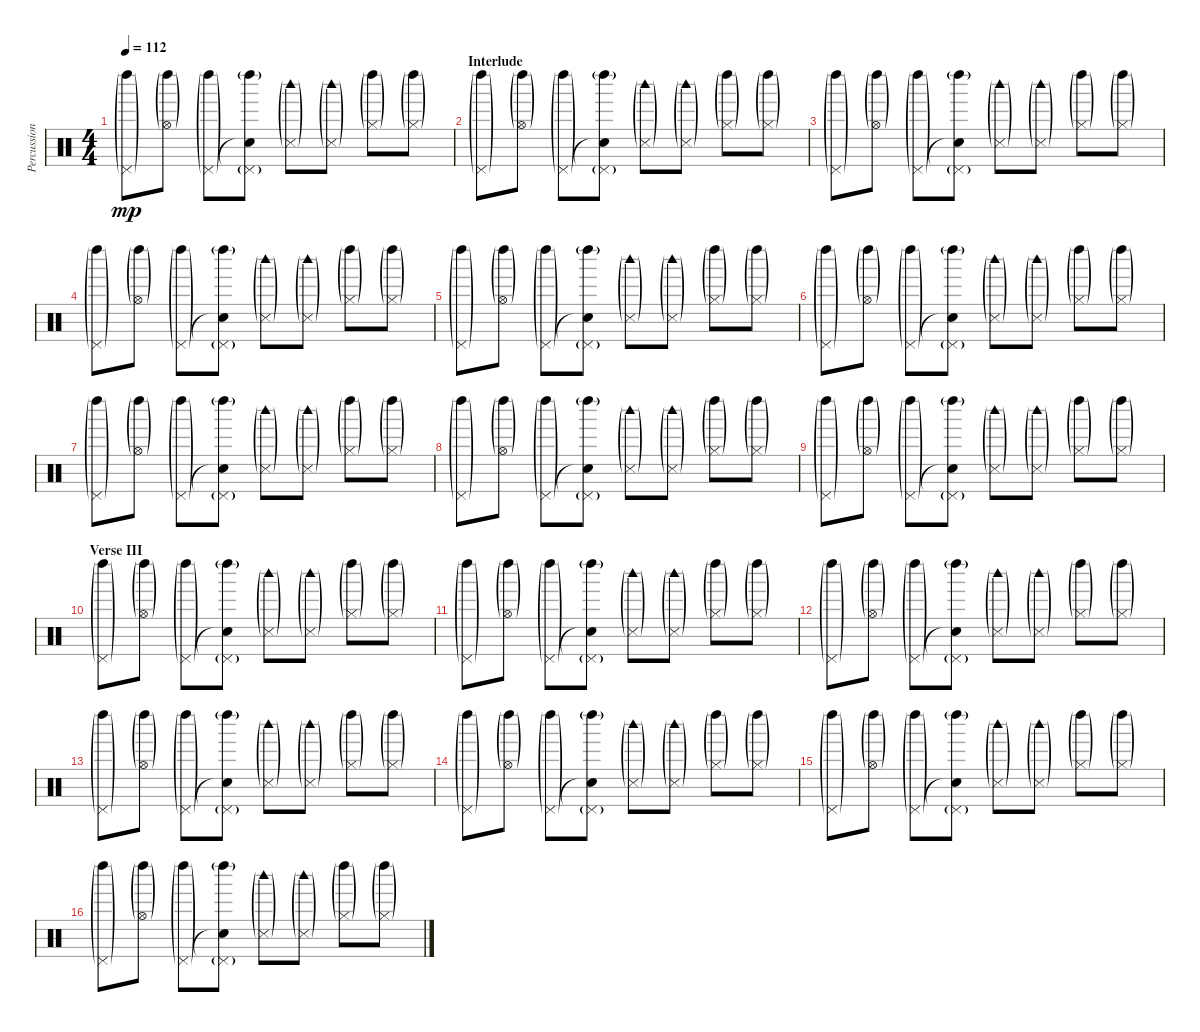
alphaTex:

\track ("Percussion" "Percussion") {instrument percussion}
\staff {score}
\articulation defaults
\ts (4 4)
\tempo 112
\clef neutral
\ks c
("Left Maraca (hit)"{g} "Pedal Hi-Hat (hit)"{g}).8{dy mp} ("Left Maraca (hit)"{g} "Hi-Hat (open)"{g}).8 ("Left Maraca (hit)"{g} "Pedal Hi-Hat (hit)"{g}).8 ("Left Maraca (hit)"{g} "Snare (hit)"{t} "Pedal Hi-Hat (hit)"{g}).8 ("Snare (side stick) 3"{g} "Woodblock high (hit)"{g}).8 ("Snare (side stick) 3"{g} "Woodblock high (hit)"{g}).8 ("Left Maraca (hit)"{g} "Hi-Hat (closed)"{g}).8 ("Left Maraca (hit)"{g} "Hi-Hat (closed)"{g}).8 |
\section ("" "Interlude")
("Left Maraca (hit)"{g} "Pedal Hi-Hat (hit)"{g}).8 ("Left Maraca (hit)"{g} "Hi-Hat (open)"{g}).8 ("Left Maraca (hit)"{g} "Pedal Hi-Hat (hit)"{g}).8 ("Left Maraca (hit)"{g} "Snare (hit)"{t} "Pedal Hi-Hat (hit)"{g}).8 ("Snare (side stick) 3"{g} "Woodblock high (hit)"{g}).8 ("Snare (side stick) 3"{g} "Woodblock high (hit)"{g}).8 ("Left Maraca (hit)"{g} "Hi-Hat (closed)"{g}).8 ("Left Maraca (hit)"{g} "Hi-Hat (closed)"{g}).8 |
("Left Maraca (hit)"{g} "Pedal Hi-Hat (hit)"{g}).8 ("Left Maraca (hit)"{g} "Hi-Hat (open)"{g}).8 ("Left Maraca (hit)"{g} "Pedal Hi-Hat (hit)"{g}).8 ("Left Maraca (hit)"{g} "Snare (hit)"{t} "Pedal Hi-Hat (hit)"{g}).8 ("Snare (side stick) 3"{g} "Woodblock high (hit)"{g}).8 ("Snare (side stick) 3"{g} "Woodblock high (hit)"{g}).8 ("Left Maraca (hit)"{g} "Hi-Hat (closed)"{g}).8 ("Left Maraca (hit)"{g} "Hi-Hat (closed)"{g}).8 |
("Left Maraca (hit)"{g} "Pedal Hi-Hat (hit)"{g}).8 ("Left Maraca (hit)"{g} "Hi-Hat (open)"{g}).8 ("Left Maraca (hit)"{g} "Pedal Hi-Hat (hit)"{g}).8 ("Left Maraca (hit)"{g} "Snare (hit)"{t} "Pedal Hi-Hat (hit)"{g}).8 ("Snare (side stick) 3"{g} "Woodblock high (hit)"{g}).8 ("Snare (side stick) 3"{g} "Woodblock high (hit)"{g}).8 ("Left Maraca (hit)"{g} "Hi-Hat (closed)"{g}).8 ("Left Maraca (hit)"{g} "Hi-Hat (closed)"{g}).8 |
("Left Maraca (hit)"{g} "Pedal Hi-Hat (hit)"{g}).8 ("Left Maraca (hit)"{g} "Hi-Hat (open)"{g}).8 ("Left Maraca (hit)"{g} "Pedal Hi-Hat (hit)"{g}).8 ("Left Maraca (hit)"{g} "Snare (hit)"{t} "Pedal Hi-Hat (hit)"{g}).8 ("Snare (side stick) 3"{g} "Woodblock high (hit)"{g}).8 ("Snare (side stick) 3"{g} "Woodblock high (hit)"{g}).8 ("Left Maraca (hit)"{g} "Hi-Hat (closed)"{g}).8 ("Left Maraca (hit)"{g} "Hi-Hat (closed)"{g}).8 |
("Left Maraca (hit)"{g} "Pedal Hi-Hat (hit)"{g}).8 ("Left Maraca (hit)"{g} "Hi-Hat (open)"{g}).8 ("Left Maraca (hit)"{g} "Pedal Hi-Hat (hit)"{g}).8 ("Left Maraca (hit)"{g} "Snare (hit)"{t} "Pedal Hi-Hat (hit)"{g}).8 ("Snare (side stick) 3"{g} "Woodblock high (hit)"{g}).8 ("Snare (side stick) 3"{g} "Woodblock high (hit)"{g}).8 ("Left Maraca (hit)"{g} "Hi-Hat (closed)"{g}).8 ("Left Maraca (hit)"{g} "Hi-Hat (closed)"{g}).8 |
("Left Maraca (hit)"{g} "Pedal Hi-Hat (hit)"{g}).8 ("Left Maraca (hit)"{g} "Hi-Hat (open)"{g}).8 ("Left Maraca (hit)"{g} "Pedal Hi-Hat (hit)"{g}).8 ("Left Maraca (hit)"{g} "Snare (hit)"{t} "Pedal Hi-Hat (hit)"{g}).8 ("Snare (side stick) 3"{g} "Woodblock high (hit)"{g}).8 ("Snare (side stick) 3"{g} "Woodblock high (hit)"{g}).8 ("Left Maraca (hit)"{g} "Hi-Hat (closed)"{g}).8 ("Left Maraca (hit)"{g} "Hi-Hat (closed)"{g}).8 |
("Left Maraca (hit)"{g} "Pedal Hi-Hat (hit)"{g}).8 ("Left Maraca (hit)"{g} "Hi-Hat (open)"{g}).8 ("Left Maraca (hit)"{g} "Pedal Hi-Hat (hit)"{g}).8 ("Left Maraca (hit)"{g} "Snare (hit)"{t} "Pedal Hi-Hat (hit)"{g}).8 ("Snare (side stick) 3"{g} "Woodblock high (hit)"{g}).8 ("Snare (side stick) 3"{g} "Woodblock high (hit)"{g}).8 ("Left Maraca (hit)"{g} "Hi-Hat (closed)"{g}).8 ("Left Maraca (hit)"{g} "Hi-Hat (closed)"{g}).8 |
("Left Maraca (hit)"{g} "Pedal Hi-Hat (hit)"{g}).8 ("Left Maraca (hit)"{g} "Hi-Hat (open)"{g}).8 ("Left Maraca (hit)"{g} "Pedal Hi-Hat (hit)"{g}).8 ("Left Maraca (hit)"{g} "Snare (hit)"{t} "Pedal Hi-Hat (hit)"{g}).8 ("Snare (side stick) 3"{g} "Woodblock high (hit)"{g}).8 ("Snare (side stick) 3"{g} "Woodblock high (hit)"{g}).8 ("Left Maraca (hit)"{g} "Hi-Hat (closed)"{g}).8 ("Left Maraca (hit)"{g} "Hi-Hat (closed)"{g}).8 |
\section ("" "Verse III")
("Left Maraca (hit)"{g} "Pedal Hi-Hat (hit)"{g}).8 ("Left Maraca (hit)"{g} "Hi-Hat (open)"{g}).8 ("Left Maraca (hit)"{g} "Pedal Hi-Hat (hit)"{g}).8 ("Left Maraca (hit)"{g} "Snare (hit)"{t} "Pedal Hi-Hat (hit)"{g}).8 ("Snare (side stick) 3"{g} "Woodblock high (hit)"{g}).8 ("Snare (side stick) 3"{g} "Woodblock high (hit)"{g}).8 ("Left Maraca (hit)"{g} "Hi-Hat (closed)"{g}).8 ("Left Maraca (hit)"{g} "Hi-Hat (closed)"{g}).8 |
("Left Maraca (hit)"{g} "Pedal Hi-Hat (hit)"{g}).8 ("Left Maraca (hit)"{g} "Hi-Hat (open)"{g}).8 ("Left Maraca (hit)"{g} "Pedal Hi-Hat (hit)"{g}).8 ("Left Maraca (hit)"{g} "Snare (hit)"{t} "Pedal Hi-Hat (hit)"{g}).8 ("Snare (side stick) 3"{g} "Woodblock high (hit)"{g}).8 ("Snare (side stick) 3"{g} "Woodblock high (hit)"{g}).8 ("Left Maraca (hit)"{g} "Hi-Hat (closed)"{g}).8 ("Left Maraca (hit)"{g} "Hi-Hat (closed)"{g}).8 |
("Left Maraca (hit)"{g} "Pedal Hi-Hat (hit)"{g}).8 ("Left Maraca (hit)"{g} "Hi-Hat (open)"{g}).8 ("Left Maraca (hit)"{g} "Pedal Hi-Hat (hit)"{g}).8 ("Left Maraca (hit)"{g} "Snare (hit)"{t} "Pedal Hi-Hat (hit)"{g}).8 ("Snare (side stick) 3"{g} "Woodblock high (hit)"{g}).8 ("Snare (side stick) 3"{g} "Woodblock high (hit)"{g}).8 ("Left Maraca (hit)"{g} "Hi-Hat (closed)"{g}).8 ("Left Maraca (hit)"{g} "Hi-Hat (closed)"{g}).8 |
("Left Maraca (hit)"{g} "Pedal Hi-Hat (hit)"{g}).8 ("Left Maraca (hit)"{g} "Hi-Hat (open)"{g}).8 ("Left Maraca (hit)"{g} "Pedal Hi-Hat (hit)"{g}).8 ("Left Maraca (hit)"{g} "Snare (hit)"{t} "Pedal Hi-Hat (hit)"{g}).8 ("Snare (side stick) 3"{g} "Woodblock high (hit)"{g}).8 ("Snare (side stick) 3"{g} "Woodblock high (hit)"{g}).8 ("Left Maraca (hit)"{g} "Hi-Hat (closed)"{g}).8 ("Left Maraca (hit)"{g} "Hi-Hat (closed)"{g}).8 |
("Left Maraca (hit)"{g} "Pedal Hi-Hat (hit)"{g}).8 ("Left Maraca (hit)"{g} "Hi-Hat (open)"{g}).8 ("Left Maraca (hit)"{g} "Pedal Hi-Hat (hit)"{g}).8 ("Left Maraca (hit)"{g} "Snare (hit)"{t} "Pedal Hi-Hat (hit)"{g}).8 ("Snare (side stick) 3"{g} "Woodblock high (hit)"{g}).8 ("Snare (side stick) 3"{g} "Woodblock high (hit)"{g}).8 ("Left Maraca (hit)"{g} "Hi-Hat (closed)"{g}).8 ("Left Maraca (hit)"{g} "Hi-Hat (closed)"{g}).8 |
("Left Maraca (hit)"{g} "Pedal Hi-Hat (hit)"{g}).8 ("Left Maraca (hit)"{g} "Hi-Hat (open)"{g}).8 ("Left Maraca (hit)"{g} "Pedal Hi-Hat (hit)"{g}).8 ("Left Maraca (hit)"{g} "Snare (hit)"{t} "Pedal Hi-Hat (hit)"{g}).8 ("Snare (side stick) 3"{g} "Woodblock high (hit)"{g}).8 ("Snare (side stick) 3"{g} "Woodblock high (hit)"{g}).8 ("Left Maraca (hit)"{g} "Hi-Hat (closed)"{g}).8 ("Left Maraca (hit)"{g} "Hi-Hat (closed)"{g}).8 |
("Left Maraca (hit)"{g} "Pedal Hi-Hat (hit)"{g}).8 ("Left Maraca (hit)"{g} "Hi-Hat (open)"{g}).8 ("Left Maraca (hit)"{g} "Pedal Hi-Hat (hit)"{g}).8 ("Left Maraca (hit)"{g} "Snare (hit)"{t} "Pedal Hi-Hat (hit)"{g}).8 ("Snare (side stick) 3"{g} "Woodblock high (hit)"{g}).8 ("Snare (side stick) 3"{g} "Woodblock high (hit)"{g}).8 ("Left Maraca (hit)"{g} "Hi-Hat (closed)"{g}).8 ("Left Maraca (hit)"{g} "Hi-Hat (closed)"{g}).8
